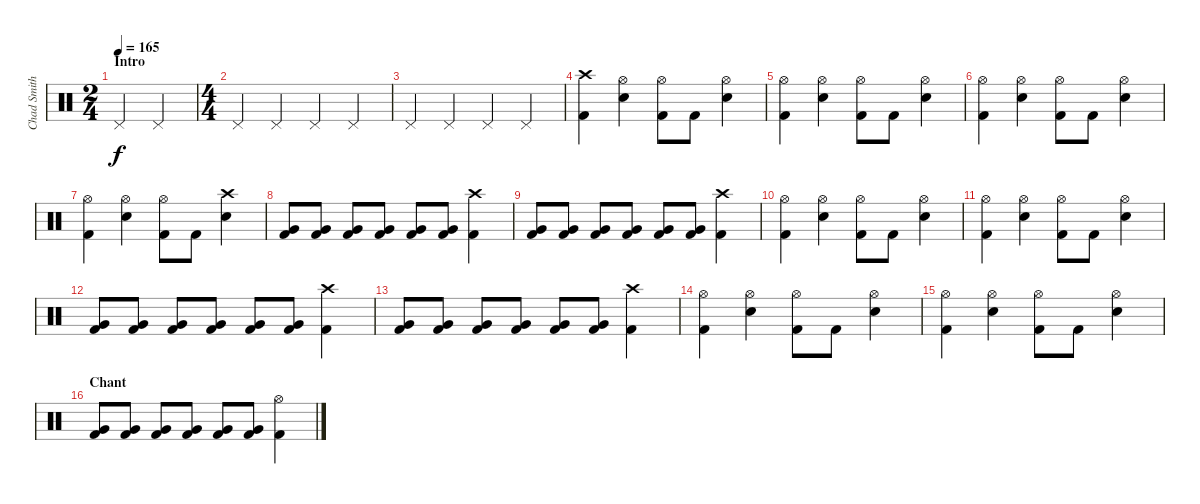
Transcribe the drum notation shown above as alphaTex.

\track ("Chad Smith" "Chad Smith") {instrument percussion}
\staff {score}
\articulation defaults
\ts (2 4)
\section ("" "Intro")
\tempo 165
\clef neutral
\ks c "Pedal Hi-Hat (hit)".4{dy f} "Pedal Hi-Hat (hit)".4
|
\ts (4 4)
"Pedal Hi-Hat (hit)".4 "Pedal Hi-Hat (hit)".4 "Pedal Hi-Hat (hit)".4 "Pedal Hi-Hat (hit)".4 |
"Pedal Hi-Hat (hit)".4 "Pedal Hi-Hat (hit)".4 "Pedal Hi-Hat (hit)".4 "Pedal Hi-Hat (hit)".4 |
("Crash high (hit)" "Kick (hit) 2").4 ("Hi-Hat (open)" "Snare (hit) 2").4 ("Hi-Hat (open)" "Kick (hit) 2").8 "Kick (hit) 2".8 ("Hi-Hat (open)" "Snare (hit) 2").4 |
("Hi-Hat (open)" "Kick (hit) 2").4 ("Hi-Hat (open)" "Snare (hit) 2").4 ("Hi-Hat (open)" "Kick (hit) 2").8 "Kick (hit) 2".8 ("Hi-Hat (open)" "Snare (hit) 2").4 |
("Hi-Hat (open)" "Kick (hit) 2").4 ("Hi-Hat (open)" "Snare (hit) 2").4 ("Hi-Hat (open)" "Kick (hit) 2").8 "Kick (hit) 2".8 ("Hi-Hat (open)" "Snare (hit) 2").4 |
("Hi-Hat (open)" "Kick (hit) 2").4 ("Hi-Hat (open)" "Snare (hit) 2").4 ("Hi-Hat (open)" "Kick (hit) 2").8 "Kick (hit) 2".8 ("Crash high (hit)" "Snare (hit) 2").4 |
("Kick (hit) 2" "Very Low Tom (hit)").8 ("Kick (hit) 2" "Very Low Tom (hit)").8 ("Kick (hit) 2" "Very Low Tom (hit)").8 ("Kick (hit) 2" "Very Low Tom (hit)").8 ("Kick (hit) 2" "Very Low Tom (hit)").8 ("Kick (hit) 2" "Very Low Tom (hit)").8 ("Crash high (hit)" "Kick (hit) 2").4 |
("Kick (hit) 2" "Very Low Tom (hit)").8 ("Kick (hit) 2" "Very Low Tom (hit)").8 ("Kick (hit) 2" "Very Low Tom (hit)").8 ("Kick (hit) 2" "Very Low Tom (hit)").8 ("Kick (hit) 2" "Very Low Tom (hit)").8 ("Kick (hit) 2" "Very Low Tom (hit)").8 ("Crash high (hit)" "Kick (hit) 2").4 |
("Hi-Hat (open)" "Kick (hit) 2").4 ("Hi-Hat (open)" "Snare (hit) 2").4 ("Hi-Hat (open)" "Kick (hit) 2").8 "Kick (hit) 2".8 ("Hi-Hat (open)" "Snare (hit) 2").4 |
("Hi-Hat (open)" "Kick (hit) 2").4 ("Hi-Hat (open)" "Snare (hit) 2").4 ("Hi-Hat (open)" "Kick (hit) 2").8 "Kick (hit) 2".8 ("Hi-Hat (open)" "Snare (hit) 2").4 |
("Kick (hit) 2" "Very Low Tom (hit)").8 ("Kick (hit) 2" "Very Low Tom (hit)").8 ("Kick (hit) 2" "Very Low Tom (hit)").8 ("Kick (hit) 2" "Very Low Tom (hit)").8 ("Kick (hit) 2" "Very Low Tom (hit)").8 ("Kick (hit) 2" "Very Low Tom (hit)").8 ("Crash high (hit)" "Kick (hit) 2").4 |
("Kick (hit) 2" "Very Low Tom (hit)").8 ("Kick (hit) 2" "Very Low Tom (hit)").8 ("Kick (hit) 2" "Very Low Tom (hit)").8 ("Kick (hit) 2" "Very Low Tom (hit)").8 ("Kick (hit) 2" "Very Low Tom (hit)").8 ("Kick (hit) 2" "Very Low Tom (hit)").8 ("Crash high (hit)" "Kick (hit) 2").4 |
("Hi-Hat (open)" "Kick (hit) 2").4 ("Hi-Hat (open)" "Snare (hit) 2").4 ("Hi-Hat (open)" "Kick (hit) 2").8 "Kick (hit) 2".8 ("Hi-Hat (open)" "Snare (hit) 2").4 |
("Hi-Hat (open)" "Kick (hit) 2").4 ("Hi-Hat (open)" "Snare (hit) 2").4 ("Hi-Hat (open)" "Kick (hit) 2").8 "Kick (hit) 2".8 ("Hi-Hat (open)" "Snare (hit) 2").4 |
\section ("" "Chant")
("Kick (hit) 2" "Very Low Tom (hit)").8 ("Kick (hit) 2" "Very Low Tom (hit)").8 ("Kick (hit) 2" "Very Low Tom (hit)").8 ("Kick (hit) 2" "Very Low Tom (hit)").8 ("Kick (hit) 2" "Very Low Tom (hit)").8 ("Kick (hit) 2" "Very Low Tom (hit)").8 ("Hi-Hat (open)" "Kick (hit) 2").4
